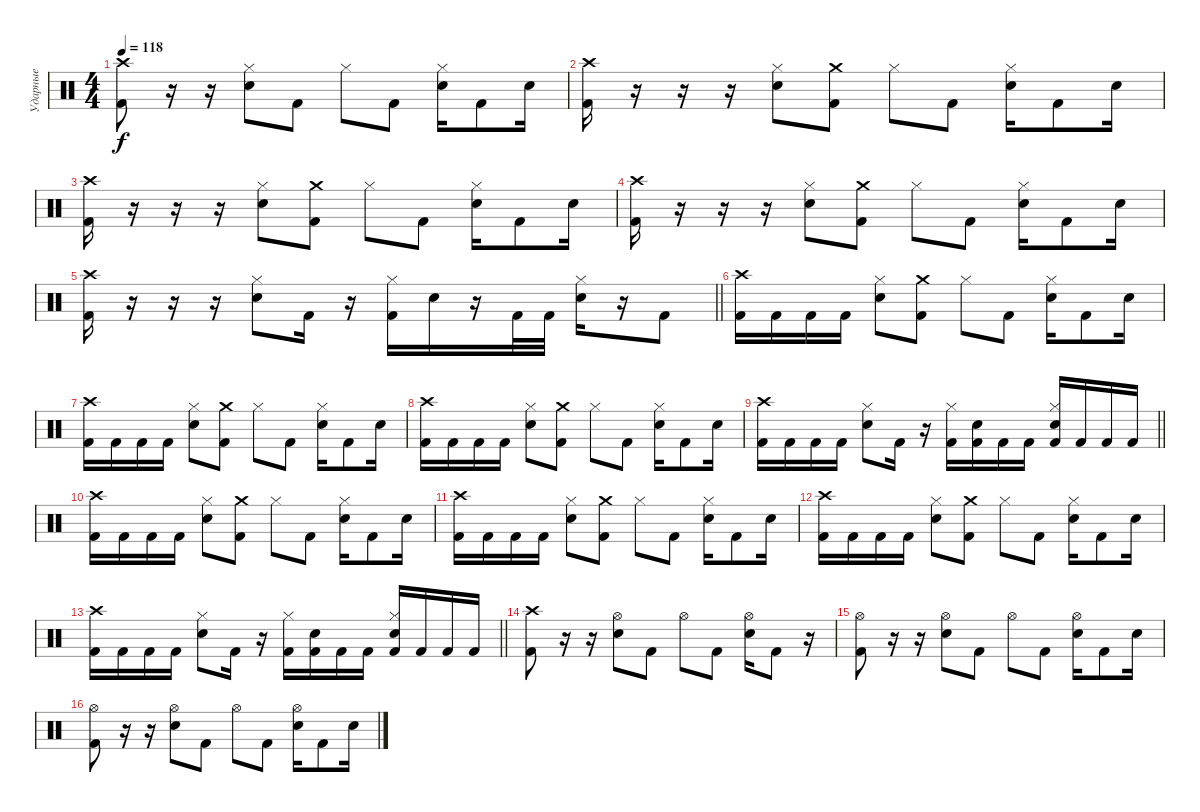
\track ("Ударные" "Ударные") {instrument percussion}
\staff {score}
\articulation defaults
\ts (4 4)
\tempo 118
\clef neutral
\ks c
("Crash high (hit)" "Kick (hit) 2").8{dy f} r.16 r.16 ("Hi-Hat (closed)" "Snare (hit) 2").8 "Kick (hit) 2".8 "Hi-Hat (closed)".8 "Kick (hit) 2".8 ("Hi-Hat (closed)" "Snare (hit) 2").16 "Kick (hit) 2".8 "Snare (hit) 2".16 |
("Crash high (hit)" "Kick (hit) 2").16 r.16 r.16 r.16 ("Hi-Hat (closed)" "Snare (hit) 2").8 ("Crash medium (hit)" "Kick (hit) 2").8 "Hi-Hat (closed)".8 "Kick (hit) 2".8 ("Hi-Hat (closed)" "Snare (hit) 2").16 "Kick (hit) 2".8 "Snare (hit) 2".16 |
("Crash high (hit)" "Kick (hit) 2").16 r.16 r.16 r.16 ("Hi-Hat (closed)" "Snare (hit) 2").8 ("Crash medium (hit)" "Kick (hit) 2").8 "Hi-Hat (closed)".8 "Kick (hit) 2".8 ("Hi-Hat (closed)" "Snare (hit) 2").16 "Kick (hit) 2".8 "Snare (hit) 2".16 |
("Crash high (hit)" "Kick (hit) 2").16 r.16 r.16 r.16 ("Hi-Hat (closed)" "Snare (hit) 2").8 ("Crash medium (hit)" "Kick (hit) 2").8 "Hi-Hat (closed)".8 "Kick (hit) 2".8 ("Hi-Hat (closed)" "Snare (hit) 2").16 "Kick (hit) 2".8 "Snare (hit) 2".16 |
\barLineRight lightlight
("Crash high (hit)" "Kick (hit) 2").16 r.16 r.16 r.16 ("Hi-Hat (closed)" "Snare (hit) 2").8 "Kick (hit) 2".16 r.16 ("Hi-Hat (closed)" "Kick (hit) 2").16 "Snare (hit) 2".16 r.16 "Kick (hit) 2".32 "Kick (hit) 2".32 ("Hi-Hat (closed)" "Snare (hit) 2").16 r.16 "Kick (hit) 2".8 |
("Crash high (hit)" "Kick (hit) 2").16 "Kick (hit) 2".16 "Kick (hit) 2".16 "Kick (hit) 2".16 ("Hi-Hat (closed)" "Snare (hit) 2").8 ("Crash medium (hit)" "Kick (hit) 2").8 "Hi-Hat (closed)".8 "Kick (hit) 2".8 ("Hi-Hat (closed)" "Snare (hit) 2").16 "Kick (hit) 2".8 "Snare (hit) 2".16 |
("Crash high (hit)" "Kick (hit) 2").16 "Kick (hit) 2".16 "Kick (hit) 2".16 "Kick (hit) 2".16 ("Hi-Hat (closed)" "Snare (hit) 2").8 ("Crash medium (hit)" "Kick (hit) 2").8 "Hi-Hat (closed)".8 "Kick (hit) 2".8 ("Hi-Hat (closed)" "Snare (hit) 2").16 "Kick (hit) 2".8 "Snare (hit) 2".16 |
("Crash high (hit)" "Kick (hit) 2").16 "Kick (hit) 2".16 "Kick (hit) 2".16 "Kick (hit) 2".16 ("Hi-Hat (closed)" "Snare (hit) 2").8 ("Crash medium (hit)" "Kick (hit) 2").8 "Hi-Hat (closed)".8 "Kick (hit) 2".8 ("Hi-Hat (closed)" "Snare (hit) 2").16 "Kick (hit) 2".8 "Snare (hit) 2".16 |
\barLineRight lightlight
("Crash high (hit)" "Kick (hit) 2").16 "Kick (hit) 2".16 "Kick (hit) 2".16 "Kick (hit) 2".16 ("Hi-Hat (closed)" "Snare (hit) 2").8 "Kick (hit) 2".16 r.16 ("Hi-Hat (closed)" "Kick (hit) 2").16 ("Snare (hit) 2" "Kick (hit) 2").16 "Kick (hit) 2".16 "Kick (hit) 2".16 ("Hi-Hat (closed)" "Snare (hit) 2" "Kick (hit) 2").16 "Kick (hit) 2".16 "Kick (hit) 2".16 "Kick (hit) 2".16 |
("Crash high (hit)" "Kick (hit) 2").16 "Kick (hit) 2".16 "Kick (hit) 2".16 "Kick (hit) 2".16 ("Hi-Hat (closed)" "Snare (hit) 2").8 ("Crash medium (hit)" "Kick (hit) 2").8 "Hi-Hat (closed)".8 "Kick (hit) 2".8 ("Hi-Hat (closed)" "Snare (hit) 2").16 "Kick (hit) 2".8 "Snare (hit) 2".16 |
("Crash high (hit)" "Kick (hit) 2").16 "Kick (hit) 2".16 "Kick (hit) 2".16 "Kick (hit) 2".16 ("Hi-Hat (closed)" "Snare (hit) 2").8 ("Crash medium (hit)" "Kick (hit) 2").8 "Hi-Hat (closed)".8 "Kick (hit) 2".8 ("Hi-Hat (closed)" "Snare (hit) 2").16 "Kick (hit) 2".8 "Snare (hit) 2".16 |
("Crash high (hit)" "Kick (hit) 2").16 "Kick (hit) 2".16 "Kick (hit) 2".16 "Kick (hit) 2".16 ("Hi-Hat (closed)" "Snare (hit) 2").8 ("Crash medium (hit)" "Kick (hit) 2").8 "Hi-Hat (closed)".8 "Kick (hit) 2".8 ("Hi-Hat (closed)" "Snare (hit) 2").16 "Kick (hit) 2".8 "Snare (hit) 2".16 |
\barLineRight lightlight
("Crash high (hit)" "Kick (hit) 2").16 "Kick (hit) 2".16 "Kick (hit) 2".16 "Kick (hit) 2".16 ("Hi-Hat (closed)" "Snare (hit) 2").8 "Kick (hit) 2".16 r.16 ("Hi-Hat (closed)" "Kick (hit) 2").16 ("Snare (hit) 2" "Kick (hit) 2").16 "Kick (hit) 2".16 "Kick (hit) 2".16 ("Hi-Hat (closed)" "Snare (hit) 2" "Kick (hit) 2").16 "Kick (hit) 2".16 "Kick (hit) 2".16 "Kick (hit) 2".16 |
("Crash high (hit)" "Kick (hit) 2").8 r.16 r.16 ("Hi-Hat (open)" "Snare (hit) 2").8 "Kick (hit) 2".8 "Hi-Hat (open)".8 "Kick (hit) 2".8 ("Hi-Hat (open)" "Snare (hit) 2").16 "Kick (hit) 2".8 r.16 |
("Hi-Hat (open)" "Kick (hit) 2").8 r.16 r.16 ("Hi-Hat (open)" "Snare (hit) 2").8 "Kick (hit) 2".8 "Hi-Hat (open)".8 "Kick (hit) 2".8 ("Hi-Hat (open)" "Snare (hit) 2").16 "Kick (hit) 2".8 "Snare (hit) 2".16 |
("Hi-Hat (open)" "Kick (hit) 2").8 r.16 r.16 ("Hi-Hat (open)" "Snare (hit) 2").8 "Kick (hit) 2".8 "Hi-Hat (open)".8 "Kick (hit) 2".8 ("Hi-Hat (open)" "Snare (hit) 2").16 "Kick (hit) 2".8 "Snare (hit) 2".16
